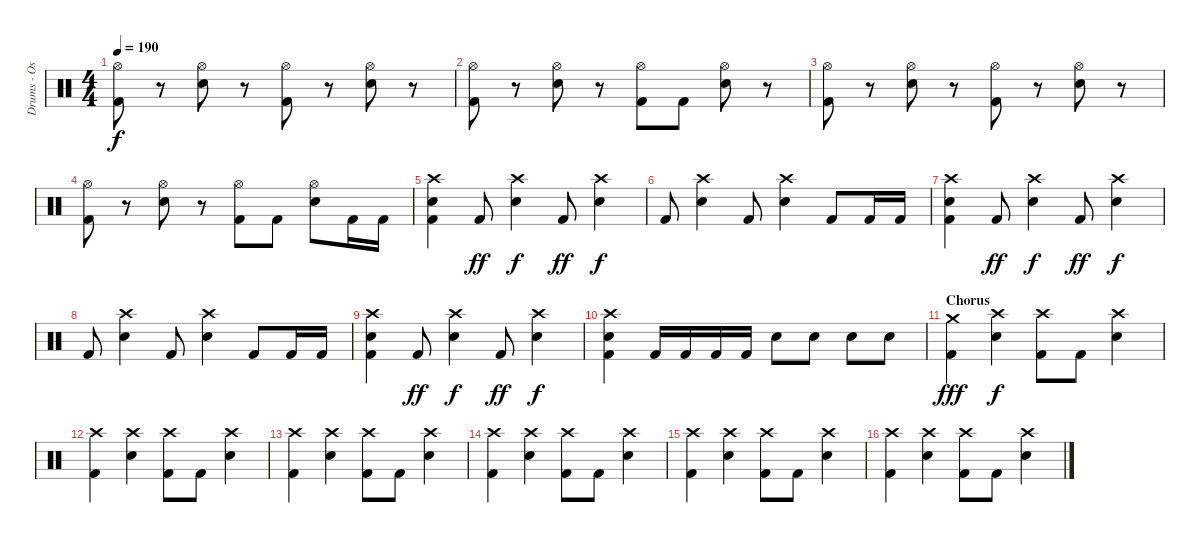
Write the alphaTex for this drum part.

\track ("Drums - Oskar Karlsson" "Drums - Os") {instrument percussion}
\staff {score}
\articulation defaults
\ts (4 4)
\tempo 190
\clef neutral
\ks c
("Hi-Hat (open)" "Kick (hit) 2").8{dy f} r.8 ("Hi-Hat (open)" "Electric Snare (hit)").8 r.8 ("Hi-Hat (open)" "Kick (hit) 2").8 r.8 ("Hi-Hat (open)" "Electric Snare (hit)").8 r.8 |
("Hi-Hat (open)" "Kick (hit) 2").8 r.8 ("Hi-Hat (open)" "Electric Snare (hit)").8 r.8 ("Hi-Hat (open)" "Kick (hit) 2").8 "Kick (hit) 2".8 ("Hi-Hat (open)" "Electric Snare (hit)").8 r.8 |
("Hi-Hat (open)" "Kick (hit) 2").8 r.8 ("Hi-Hat (open)" "Electric Snare (hit)").8 r.8 ("Hi-Hat (open)" "Kick (hit) 2").8 r.8 ("Hi-Hat (open)" "Electric Snare (hit)").8 r.8 |
("Hi-Hat (open)" "Kick (hit) 2").8 r.8 ("Hi-Hat (open)" "Electric Snare (hit)").8 r.8 ("Hi-Hat (open)" "Kick (hit) 2").8 "Kick (hit) 2".8 ("Hi-Hat (open)" "Electric Snare (hit)").8 "Kick (hit) 2".16 "Kick (hit) 2".16 |
("Crash high (hit)" "Electric Snare (hit)" "Kick (hit) 2").4 "Kick (hit) 2".8{dy ff} ("Crash high (hit)" "Electric Snare (hit)").4{dy f} "Kick (hit) 2".8{dy ff} ("Crash high (hit)" "Electric Snare (hit)").4{dy f} |
"Kick (hit) 2".8 ("Crash high (hit)" "Electric Snare (hit)").4 "Kick (hit) 2".8 ("Crash high (hit)" "Electric Snare (hit)").4 "Kick (hit) 2".8 "Kick (hit) 2".16 "Kick (hit) 2".16 |
("Crash high (hit)" "Electric Snare (hit)" "Kick (hit) 2").4 "Kick (hit) 2".8{dy ff} ("Crash high (hit)" "Electric Snare (hit)").4{dy f} "Kick (hit) 2".8{dy ff} ("Crash high (hit)" "Electric Snare (hit)").4{dy f} |
"Kick (hit) 2".8 ("Crash high (hit)" "Electric Snare (hit)").4 "Kick (hit) 2".8 ("Crash high (hit)" "Electric Snare (hit)").4 "Kick (hit) 2".8 "Kick (hit) 2".16 "Kick (hit) 2".16 |
("Crash high (hit)" "Electric Snare (hit)" "Kick (hit) 2").4 "Kick (hit) 2".8{dy ff} ("Crash high (hit)" "Electric Snare (hit)").4{dy f} "Kick (hit) 2".8{dy ff} ("Crash high (hit)" "Electric Snare (hit)").4{dy f} |
("Crash high (hit)" "Electric Snare (hit)" "Kick (hit) 2").4 "Kick (hit) 2".16 "Kick (hit) 2".16 "Kick (hit) 2".16 "Kick (hit) 2".16 "Electric Snare (hit)".8 "Electric Snare (hit)".8 "Electric Snare (hit)".8 "Electric Snare (hit)".8 |
\section ("" "Chorus")
("Crash medium (hit)" "Kick (hit) 2").4{dy fff} ("Crash high (hit)" "Electric Snare (hit)").4{dy f} ("Crash high (hit)" "Kick (hit) 2").8 "Kick (hit) 2".8 ("Crash high (hit)" "Electric Snare (hit)").4 |
("Crash high (hit)" "Kick (hit) 2").4 ("Crash high (hit)" "Electric Snare (hit)").4 ("Crash high (hit)" "Kick (hit) 2").8 "Kick (hit) 2".8 ("Crash high (hit)" "Electric Snare (hit)").4 |
("Crash high (hit)" "Kick (hit) 2").4 ("Crash high (hit)" "Electric Snare (hit)").4 ("Crash high (hit)" "Kick (hit) 2").8 "Kick (hit) 2".8 ("Crash high (hit)" "Electric Snare (hit)").4 |
("Crash high (hit)" "Kick (hit) 2").4 ("Crash high (hit)" "Electric Snare (hit)").4 ("Crash high (hit)" "Kick (hit) 2").8 "Kick (hit) 2".8 ("Crash high (hit)" "Electric Snare (hit)").4 |
("Crash high (hit)" "Kick (hit) 2").4 ("Crash high (hit)" "Electric Snare (hit)").4 ("Crash high (hit)" "Kick (hit) 2").8 "Kick (hit) 2".8 ("Crash high (hit)" "Electric Snare (hit)").4 |
("Crash high (hit)" "Kick (hit) 2").4 ("Crash high (hit)" "Electric Snare (hit)").4 ("Crash high (hit)" "Kick (hit) 2").8 "Kick (hit) 2".8 ("Crash high (hit)" "Electric Snare (hit)").4
